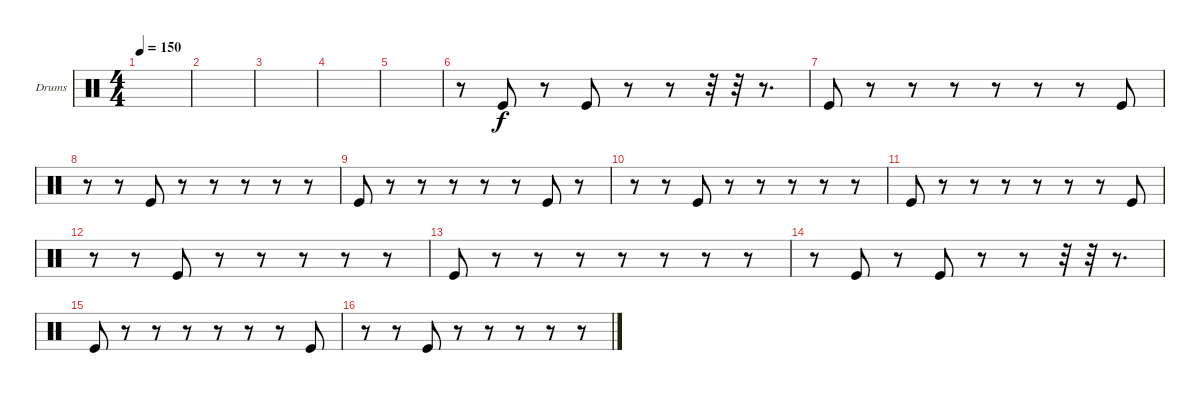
\bracketExtendMode groupsimilarinstruments
\firstSystemTrackNameOrientation horizontal
\otherSystemsTrackNameOrientation horizontal
\track ("Drumkit Kick" "Drums ") {instrument percussion}
\staff {score}
\articulation defaults
\ts (4 4)
\tempo 150
\clef neutral
\scale
0.333333
\ks c
|
\scale
0.333333 |
\scale
0.333333 |
\scale
0.333333 |
\scale
0.333333 |
\scale
0.333333 r.8 "Kick (hit)".8{dy f} r.8 "Kick (hit)".8 r.8 r.8 r.32 r.32 r.8{d} |
\scale
0.333333 "Kick (hit)".8 r.8 r.8 r.8 r.8 r.8 r.8 "Kick (hit)".8 |
\scale
0.333333 r.8 r.8 "Kick (hit)".8 r.8 r.8 r.8 r.8 r.8 |
\scale
0.333333 "Kick (hit)".8 r.8 r.8 r.8 r.8 r.8 "Kick (hit)".8 r.8 |
\scale
0.333333 r.8 r.8 "Kick (hit)".8 r.8 r.8 r.8 r.8 r.8 |
\scale
0.333333 "Kick (hit)".8 r.8 r.8 r.8 r.8 r.8 r.8 "Kick (hit)".8 |
\scale
0.333333 r.8 r.8 "Kick (hit)".8 r.8 r.8 r.8 r.8 r.8 |
\scale
0.333333 "Kick (hit)".8 r.8 r.8 r.8 r.8 r.8 r.8 r.8 |
\scale
0.333333 r.8 "Kick (hit)".8 r.8 "Kick (hit)".8 r.8 r.8 r.32 r.32 r.8{d} |
\scale
0.333333 "Kick (hit)".8 r.8 r.8 r.8 r.8 r.8 r.8 "Kick (hit)".8 |
\scale
0.333333 r.8 r.8 "Kick (hit)".8 r.8 r.8 r.8 r.8 r.8
